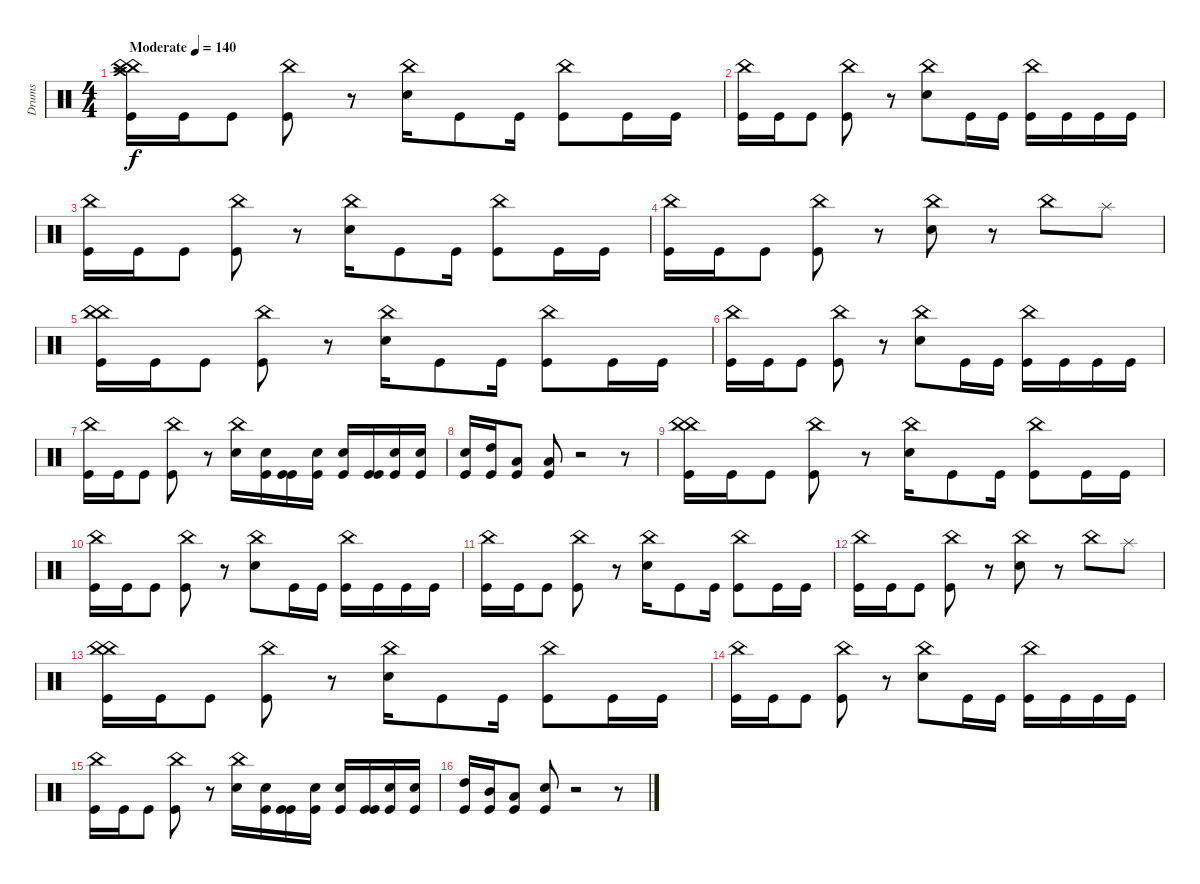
\track ("Drums" "Drums") {instrument percussion bank 97}
\staff {score}
\articulation defaults
\ts (4 4)
\tempo (140 "Moderate")
\clef neutral
\ks c
("Crash high (hit)" "China (hit)" "China (hit)" "Kick (hit)").16{dy f} "Kick (hit)".16 "Kick (hit)".8 ("China (hit)" "Kick (hit)").8 r.8 ("China (hit)" "Electric Snare (hit)").16 "Kick (hit)".8 "Kick (hit)".16 ("China (hit)" "Kick (hit)").8 "Kick (hit)".16 "Kick (hit)".16 |
("China (hit)" "Kick (hit)").16 "Kick (hit)".16 "Kick (hit)".8 ("China (hit)" "Kick (hit)").8 r.8 ("China (hit)" "Electric Snare (hit)").8 "Kick (hit)".16 "Kick (hit)".16 ("China (hit)" "Kick (hit)").16 "Kick (hit)".16 "Kick (hit)".16 "Kick (hit)".16 |
("China (hit)" "Kick (hit)").16 "Kick (hit)".16 "Kick (hit)".8 ("China (hit)" "Kick (hit)").8 r.8 ("China (hit)" "Electric Snare (hit)").16 "Kick (hit)".8 "Kick (hit)".16 ("China (hit)" "Kick (hit)").8 "Kick (hit)".16 "Kick (hit)".16 |
("China (hit)" "Kick (hit)").16 "Kick (hit)".16 "Kick (hit)".8 ("China (hit)" "Kick (hit)").8 r.8 ("China (hit)" "Electric Snare (hit)").8 r.8 "China (hit)".8 "Splash (hit)".8 |
("China (hit)" "China (hit)" "Kick (hit)").16 "Kick (hit)".16 "Kick (hit)".8 ("China (hit)" "Kick (hit)").8 r.8 ("China (hit)" "Electric Snare (hit)").16 "Kick (hit)".8 "Kick (hit)".16 ("China (hit)" "Kick (hit)").8 "Kick (hit)".16 "Kick (hit)".16 |
("China (hit)" "Kick (hit)").16 "Kick (hit)".16 "Kick (hit)".8 ("China (hit)" "Kick (hit)").8 r.8 ("China (hit)" "Electric Snare (hit)").8 "Kick (hit)".16 "Kick (hit)".16 ("China (hit)" "Kick (hit)").16 "Kick (hit)".16 "Kick (hit)".16 "Kick (hit)".16 |
("China (hit)" "Kick (hit)").16 "Kick (hit)".16 "Kick (hit)".8 ("China (hit)" "Kick (hit)").8 r.8 ("China (hit)" "Electric Snare (hit)").16 ("Electric Snare (hit)" "Kick (hit)").16 ("Kick (hit)" "Kick (hit)").16 ("Electric Snare (hit)" "Kick (hit)").16 ("Electric Snare (hit)" "Kick (hit)").16 ("Kick (hit)" "Kick (hit)").16 ("Electric Snare (hit)" "Kick (hit)").16 ("Electric Snare (hit)" "Kick (hit)").16 |
("Electric Snare (hit)" "Kick (hit)").16 ("High Tom (hit)" "Kick (hit)").16 ("Low Tom (hit)" "Kick (hit)").8 ("Low Tom (hit)" "Kick (hit)").8 r.2 r.8 |
("China (hit)" "China (hit)" "Kick (hit)").16 "Kick (hit)".16 "Kick (hit)".8 ("China (hit)" "Kick (hit)").8 r.8 ("China (hit)" "Electric Snare (hit)").16 "Kick (hit)".8 "Kick (hit)".16 ("China (hit)" "Kick (hit)").8 "Kick (hit)".16 "Kick (hit)".16 |
("China (hit)" "Kick (hit)").16 "Kick (hit)".16 "Kick (hit)".8 ("China (hit)" "Kick (hit)").8 r.8 ("China (hit)" "Electric Snare (hit)").8 "Kick (hit)".16 "Kick (hit)".16 ("China (hit)" "Kick (hit)").16 "Kick (hit)".16 "Kick (hit)".16 "Kick (hit)".16 |
("China (hit)" "Kick (hit)").16 "Kick (hit)".16 "Kick (hit)".8 ("China (hit)" "Kick (hit)").8 r.8 ("China (hit)" "Electric Snare (hit)").16 "Kick (hit)".8 "Kick (hit)".16 ("China (hit)" "Kick (hit)").8 "Kick (hit)".16 "Kick (hit)".16 |
("China (hit)" "Kick (hit)").16 "Kick (hit)".16 "Kick (hit)".8 ("China (hit)" "Kick (hit)").8 r.8 ("China (hit)" "Electric Snare (hit)").8 r.8 "China (hit)".8 "Splash (hit)".8 |
("China (hit)" "China (hit)" "Kick (hit)").16 "Kick (hit)".16 "Kick (hit)".8 ("China (hit)" "Kick (hit)").8 r.8 ("China (hit)" "Electric Snare (hit)").16 "Kick (hit)".8 "Kick (hit)".16 ("China (hit)" "Kick (hit)").8 "Kick (hit)".16 "Kick (hit)".16 |
("China (hit)" "Kick (hit)").16 "Kick (hit)".16 "Kick (hit)".8 ("China (hit)" "Kick (hit)").8 r.8 ("China (hit)" "Electric Snare (hit)").8 "Kick (hit)".16 "Kick (hit)".16 ("China (hit)" "Kick (hit)").16 "Kick (hit)".16 "Kick (hit)".16 "Kick (hit)".16 |
("China (hit)" "Kick (hit)").16 "Kick (hit)".16 "Kick (hit)".8 ("China (hit)" "Kick (hit)").8 r.8 ("China (hit)" "Electric Snare (hit)").16 ("Electric Snare (hit)" "Kick (hit)").16 ("Kick (hit)" "Kick (hit)").16 ("Electric Snare (hit)" "Kick (hit)").16 ("Electric Snare (hit)" "Kick (hit)").16 ("Kick (hit)" "Kick (hit)").16 ("Electric Snare (hit)" "Kick (hit)").16 ("Electric Snare (hit)" "Kick (hit)").16 |
("High Tom (hit)" "Kick (hit)").16 ("Mid Tom (hit)" "Kick (hit)").16 ("Low Tom (hit)" "Kick (hit)").8 ("Electric Snare (hit)" "Kick (hit)").8 r.2 r.8
